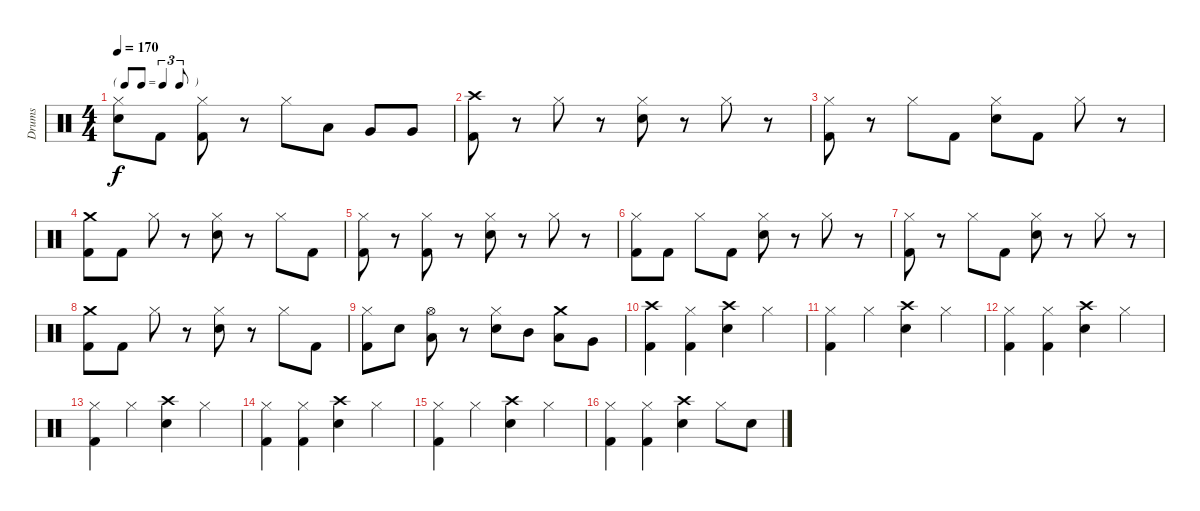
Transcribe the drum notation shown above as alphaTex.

\track ("Drums" "Drums") {instrument percussion}
\staff {score}
\articulation defaults
\ts (4 4)
\tf triplet8th
\tempo 170
\clef neutral
\ks c
("Hi-Hat (closed)" "Snare (hit) 2").8{dy f} "Kick (hit) 2".8 ("Hi-Hat (closed)" "Kick (hit) 2").8 r.8 "Hi-Hat (closed)".8 "Low Tom (hit)".8 "Very Low Tom (hit)".8 "Very Low Tom (hit)".8 |
("Crash high (hit)" "Kick (hit) 2").8 r.8 "Hi-Hat (closed)".8 r.8 ("Hi-Hat (closed)" "Snare (hit) 2").8 r.8 "Hi-Hat (closed)".8 r.8 |
("Hi-Hat (closed)" "Kick (hit) 2").8 r.8 "Hi-Hat (closed)".8 "Kick (hit) 2".8 ("Hi-Hat (closed)" "Snare (hit) 2").8 "Kick (hit) 2".8 "Hi-Hat (closed)".8 r.8 |
("Crash medium (hit)" "Kick (hit) 2").8 "Kick (hit) 2".8 "Hi-Hat (closed)".8 r.8 ("Hi-Hat (closed)" "Snare (hit) 2").8 r.8 "Hi-Hat (closed)".8 "Kick (hit) 2".8 |
("Hi-Hat (closed)" "Kick (hit) 2").8 r.8 ("Hi-Hat (closed)" "Kick (hit) 2").8 r.8 ("Hi-Hat (closed)" "Snare (hit) 2").8 r.8 "Hi-Hat (closed)".8 r.8 |
("Hi-Hat (closed)" "Kick (hit) 2").8 "Kick (hit) 2".8 "Hi-Hat (closed)".8 "Kick (hit) 2".8 ("Hi-Hat (closed)" "Snare (hit) 2").8 r.8 "Hi-Hat (closed)".8 r.8 |
("Hi-Hat (closed)" "Kick (hit) 2").8 r.8 "Hi-Hat (closed)".8 "Kick (hit) 2".8 ("Hi-Hat (closed)" "Snare (hit) 2").8 r.8 "Hi-Hat (closed)".8 r.8 |
("Crash medium (hit)" "Kick (hit) 2").8 "Kick (hit) 2".8 "Hi-Hat (closed)".8 r.8 ("Hi-Hat (closed)" "Snare (hit) 2").8 r.8 "Hi-Hat (closed)".8 "Kick (hit) 2".8 |
("Hi-Hat (closed)" "Kick (hit) 2").8 "Snare (hit) 2".8 ("Hi-Hat (open)" "Low Tom (hit)").8 r.8 ("Hi-Hat (closed)" "Snare (hit) 2").8 "Mid Tom (hit)".8 ("Crash medium (hit)" "Low Tom (hit)").8 "Very Low Tom (hit)".8 |
("Crash high (hit)" "Kick (hit) 2").4 ("Hi-Hat (closed)" "Kick (hit) 2").4 ("Crash high (hit)" "Snare (hit) 2").4 "Hi-Hat (closed)".4 |
("Hi-Hat (closed)" "Kick (hit) 2").4 "Hi-Hat (closed)".4 ("Crash high (hit)" "Snare (hit) 2").4 "Hi-Hat (closed)".4 |
("Hi-Hat (closed)" "Kick (hit) 2").4 ("Hi-Hat (closed)" "Kick (hit) 2").4 ("Crash high (hit)" "Snare (hit) 2").4 "Hi-Hat (closed)".4 |
("Hi-Hat (closed)" "Kick (hit) 2").4 "Hi-Hat (closed)".4 ("Crash high (hit)" "Snare (hit) 2").4 "Hi-Hat (closed)".4 |
("Hi-Hat (closed)" "Kick (hit) 2").4 ("Hi-Hat (closed)" "Kick (hit) 2").4 ("Crash high (hit)" "Snare (hit) 2").4 "Hi-Hat (closed)".4 |
("Hi-Hat (closed)" "Kick (hit) 2").4 "Hi-Hat (closed)".4 ("Crash high (hit)" "Snare (hit) 2").4 "Hi-Hat (closed)".4 |
("Hi-Hat (closed)" "Kick (hit) 2").4 ("Hi-Hat (closed)" "Kick (hit) 2").4 ("Crash high (hit)" "Snare (hit) 2").4 "Hi-Hat (closed)".8 "Snare (hit) 2".8
